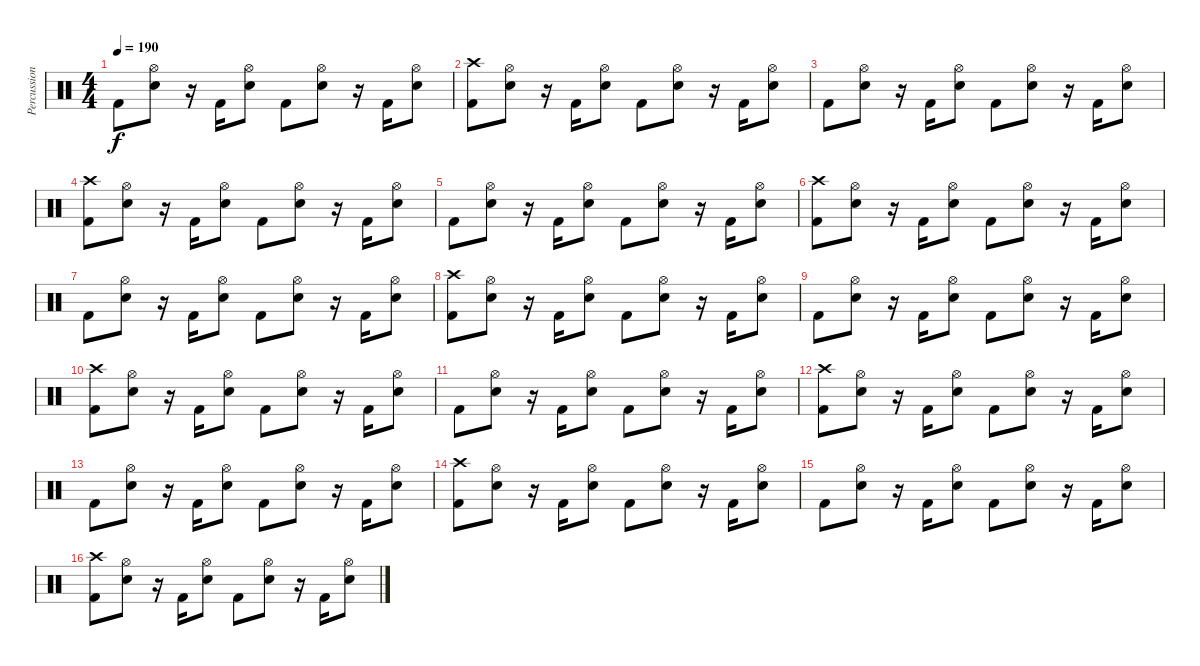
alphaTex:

\track ("Percussions" "Percussion") {instrument percussion}
\staff {score}
\articulation defaults
\ts (4 4)
\tempo 190
\clef neutral
\ks c "Kick (hit) 2".8{dy f}
("Hi-Hat (open)" "Electric Snare (hit)").8 r.16 "Kick (hit) 2".16 ("Hi-Hat (open)" "Electric Snare (hit)").8 "Kick (hit) 2".8 ("Hi-Hat (open)" "Electric Snare (hit)").8 r.16 "Kick (hit) 2".16 ("Hi-Hat (open)" "Electric Snare (hit)").8 |
("Crash high (hit)" "Kick (hit) 2").8 ("Hi-Hat (open)" "Electric Snare (hit)").8 r.16 "Kick (hit) 2".16 ("Hi-Hat (open)" "Electric Snare (hit)").8 "Kick (hit) 2".8 ("Hi-Hat (open)" "Electric Snare (hit)").8 r.16 "Kick (hit) 2".16 ("Hi-Hat (open)" "Electric Snare (hit)").8 |
"Kick (hit) 2".8 ("Hi-Hat (open)" "Electric Snare (hit)").8 r.16 "Kick (hit) 2".16 ("Hi-Hat (open)" "Electric Snare (hit)").8 "Kick (hit) 2".8 ("Hi-Hat (open)" "Electric Snare (hit)").8 r.16 "Kick (hit) 2".16 ("Hi-Hat (open)" "Electric Snare (hit)").8 |
("Crash high (hit)" "Kick (hit) 2").8 ("Hi-Hat (open)" "Electric Snare (hit)").8 r.16 "Kick (hit) 2".16 ("Hi-Hat (open)" "Electric Snare (hit)").8 "Kick (hit) 2".8 ("Hi-Hat (open)" "Electric Snare (hit)").8 r.16 "Kick (hit) 2".16 ("Hi-Hat (open)" "Electric Snare (hit)").8 |
"Kick (hit) 2".8 ("Hi-Hat (open)" "Electric Snare (hit)").8 r.16 "Kick (hit) 2".16 ("Hi-Hat (open)" "Electric Snare (hit)").8 "Kick (hit) 2".8 ("Hi-Hat (open)" "Electric Snare (hit)").8 r.16 "Kick (hit) 2".16 ("Hi-Hat (open)" "Electric Snare (hit)").8 |
("Crash high (hit)" "Kick (hit) 2").8 ("Hi-Hat (open)" "Electric Snare (hit)").8 r.16 "Kick (hit) 2".16 ("Hi-Hat (open)" "Electric Snare (hit)").8 "Kick (hit) 2".8 ("Hi-Hat (open)" "Electric Snare (hit)").8 r.16 "Kick (hit) 2".16 ("Hi-Hat (open)" "Electric Snare (hit)").8 |
"Kick (hit) 2".8 ("Hi-Hat (open)" "Electric Snare (hit)").8 r.16 "Kick (hit) 2".16 ("Hi-Hat (open)" "Electric Snare (hit)").8 "Kick (hit) 2".8 ("Hi-Hat (open)" "Electric Snare (hit)").8 r.16 "Kick (hit) 2".16 ("Hi-Hat (open)" "Electric Snare (hit)").8 |
("Crash high (hit)" "Kick (hit) 2").8 ("Hi-Hat (open)" "Electric Snare (hit)").8 r.16 "Kick (hit) 2".16 ("Hi-Hat (open)" "Electric Snare (hit)").8 "Kick (hit) 2".8 ("Hi-Hat (open)" "Electric Snare (hit)").8 r.16 "Kick (hit) 2".16 ("Hi-Hat (open)" "Electric Snare (hit)").8 |
"Kick (hit) 2".8 ("Hi-Hat (open)" "Electric Snare (hit)").8 r.16 "Kick (hit) 2".16 ("Hi-Hat (open)" "Electric Snare (hit)").8 "Kick (hit) 2".8 ("Hi-Hat (open)" "Electric Snare (hit)").8 r.16 "Kick (hit) 2".16 ("Hi-Hat (open)" "Electric Snare (hit)").8 |
("Crash high (hit)" "Kick (hit) 2").8 ("Hi-Hat (open)" "Electric Snare (hit)").8 r.16 "Kick (hit) 2".16 ("Hi-Hat (open)" "Electric Snare (hit)").8 "Kick (hit) 2".8 ("Hi-Hat (open)" "Electric Snare (hit)").8 r.16 "Kick (hit) 2".16 ("Hi-Hat (open)" "Electric Snare (hit)").8 |
"Kick (hit) 2".8 ("Hi-Hat (open)" "Electric Snare (hit)").8 r.16 "Kick (hit) 2".16 ("Hi-Hat (open)" "Electric Snare (hit)").8 "Kick (hit) 2".8 ("Hi-Hat (open)" "Electric Snare (hit)").8 r.16 "Kick (hit) 2".16 ("Hi-Hat (open)" "Electric Snare (hit)").8 |
("Crash high (hit)" "Kick (hit) 2").8 ("Hi-Hat (open)" "Electric Snare (hit)").8 r.16 "Kick (hit) 2".16 ("Hi-Hat (open)" "Electric Snare (hit)").8 "Kick (hit) 2".8 ("Hi-Hat (open)" "Electric Snare (hit)").8 r.16 "Kick (hit) 2".16 ("Hi-Hat (open)" "Electric Snare (hit)").8 |
"Kick (hit) 2".8 ("Hi-Hat (open)" "Electric Snare (hit)").8 r.16 "Kick (hit) 2".16 ("Hi-Hat (open)" "Electric Snare (hit)").8 "Kick (hit) 2".8 ("Hi-Hat (open)" "Electric Snare (hit)").8 r.16 "Kick (hit) 2".16 ("Hi-Hat (open)" "Electric Snare (hit)").8 |
("Crash high (hit)" "Kick (hit) 2").8 ("Hi-Hat (open)" "Electric Snare (hit)").8 r.16 "Kick (hit) 2".16 ("Hi-Hat (open)" "Electric Snare (hit)").8 "Kick (hit) 2".8 ("Hi-Hat (open)" "Electric Snare (hit)").8 r.16 "Kick (hit) 2".16 ("Hi-Hat (open)" "Electric Snare (hit)").8 |
"Kick (hit) 2".8 ("Hi-Hat (open)" "Electric Snare (hit)").8 r.16 "Kick (hit) 2".16 ("Hi-Hat (open)" "Electric Snare (hit)").8 "Kick (hit) 2".8 ("Hi-Hat (open)" "Electric Snare (hit)").8 r.16 "Kick (hit) 2".16 ("Hi-Hat (open)" "Electric Snare (hit)").8 |
("Crash high (hit)" "Kick (hit) 2").8 ("Hi-Hat (open)" "Electric Snare (hit)").8 r.16 "Kick (hit) 2".16 ("Hi-Hat (open)" "Electric Snare (hit)").8 "Kick (hit) 2".8 ("Hi-Hat (open)" "Electric Snare (hit)").8 r.16 "Kick (hit) 2".16 ("Hi-Hat (open)" "Electric Snare (hit)").8
